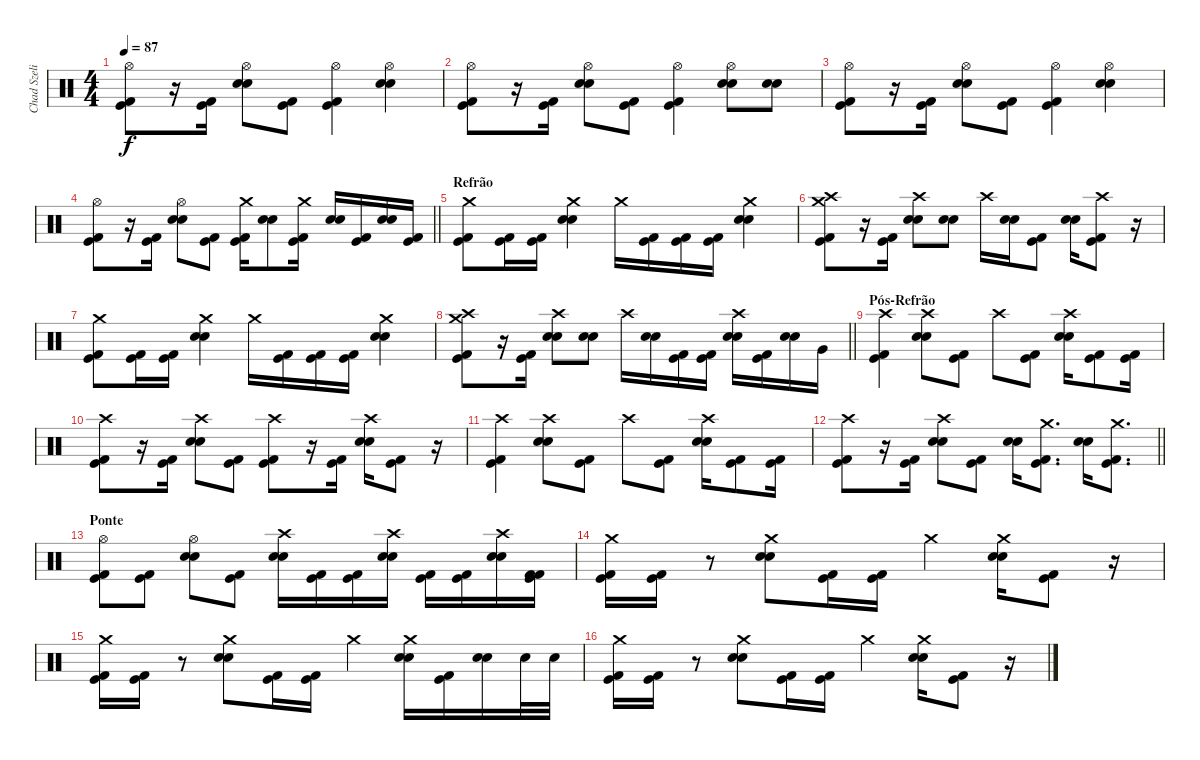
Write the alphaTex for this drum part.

\track ("Chad Szeliga" "Chad Szeli") {instrument percussion}
\staff {score}
\articulation defaults
\ts (4 4)
\tempo 87
\clef neutral
\ks c
("Kick (hit) 2" "Kick (hit)" "Hi-Hat (open)").8{dy f} r.16 ("Kick (hit) 2" "Kick (hit)").16{beam Down} ("Snare (hit) 2" "Snare (hit) 2" "Hi-Hat (open)").8 ("Kick (hit) 2" "Kick (hit)").8 ("Kick (hit) 2" "Kick (hit)" "Hi-Hat (open)").4 ("Snare (hit) 2" "Snare (hit) 2" "Hi-Hat (open)").4 |
("Kick (hit) 2" "Kick (hit)" "Hi-Hat (open)").8 r.16 ("Kick (hit) 2" "Kick (hit)").16{beam Down} ("Snare (hit) 2" "Snare (hit) 2" "Hi-Hat (open)").8 ("Kick (hit) 2" "Kick (hit)").8 ("Kick (hit) 2" "Kick (hit)" "Hi-Hat (open)").4 ("Snare (hit) 2" "Snare (hit) 2" "Hi-Hat (open)").8 ("Snare (hit) 2" "Snare (hit) 2").8 |
("Kick (hit) 2" "Kick (hit)" "Hi-Hat (open)").8 r.16 ("Kick (hit) 2" "Kick (hit)").16{beam Down} ("Snare (hit) 2" "Snare (hit) 2" "Hi-Hat (open)").8 ("Kick (hit) 2" "Kick (hit)").8 ("Kick (hit) 2" "Kick (hit)" "Hi-Hat (open)").4 ("Snare (hit) 2" "Snare (hit) 2" "Hi-Hat (open)").4 |
\barLineRight lightlight
("Kick (hit) 2" "Kick (hit)" "Hi-Hat (open)").8 r.16 ("Kick (hit) 2" "Kick (hit)").16{beam Down} ("Snare (hit) 2" "Snare (hit) 2" "Hi-Hat (open)").8 ("Kick (hit) 2" "Kick (hit)").8 ("Crash medium (hit)" "Kick (hit) 2" "Kick (hit)").16 ("Snare (hit) 2" "Snare (hit) 2").8 ("Crash medium (hit)" "Kick (hit) 2" "Kick (hit)").16 ("Snare (hit) 2" "Snare (hit) 2").16 ("Kick (hit) 2" "Kick (hit)").16 ("Snare (hit) 2" "Snare (hit) 2").16 ("Kick (hit) 2" "Kick (hit)").16 |
\section ("" "Refrão")
("Crash medium (hit)" "Kick (hit) 2" "Kick (hit)").8 ("Kick (hit) 2" "Kick (hit)").16 ("Kick (hit) 2" "Kick (hit)").16 ("Crash medium (hit)" "Snare (hit) 2" "Snare (hit) 2").4 "Crash medium (hit)".16 ("Kick (hit) 2" "Kick (hit)").16 ("Kick (hit) 2" "Kick (hit)").16 ("Kick (hit) 2" "Kick (hit)").16 ("Crash medium (hit)" "Snare (hit) 2" "Snare (hit) 2").4 |
("Crash high (hit)" "Kick (hit) 2" "Kick (hit)" "Crash medium (hit)").8 r.16 ("Kick (hit) 2" "Kick (hit)").16{beam Down} ("Crash high (hit)" "Snare (hit) 2" "Snare (hit) 2").8 ("Snare (hit) 2" "Snare (hit) 2").8 "Crash high (hit)".16 ("Snare (hit) 2" "Snare (hit) 2").16 ("Kick (hit) 2" "Kick (hit)").8 ("Snare (hit) 2" "Snare (hit) 2").16 ("Crash high (hit)" "Kick (hit) 2" "Kick (hit)").8 r.16 |
("Crash medium (hit)" "Kick (hit) 2" "Kick (hit)").8 ("Kick (hit) 2" "Kick (hit)").16 ("Kick (hit) 2" "Kick (hit)").16 ("Crash medium (hit)" "Snare (hit) 2" "Snare (hit) 2").4 "Crash medium (hit)".16 ("Kick (hit) 2" "Kick (hit)").16 ("Kick (hit) 2" "Kick (hit)").16 ("Kick (hit) 2" "Kick (hit)").16 ("Crash medium (hit)" "Snare (hit) 2" "Snare (hit) 2").4 |
\barLineRight lightlight
("Crash high (hit)" "Kick (hit) 2" "Kick (hit)" "Crash medium (hit)").8 r.16 ("Kick (hit) 2" "Kick (hit)").16{beam Down} ("Crash high (hit)" "Snare (hit) 2" "Snare (hit) 2").8 ("Snare (hit) 2" "Snare (hit) 2").8 "Crash high (hit)".16 ("Snare (hit) 2" "Snare (hit) 2").16 ("Kick (hit) 2" "Kick (hit)").16 ("Kick (hit) 2" "Kick (hit)").16 ("Crash high (hit)" "Snare (hit) 2" "Snare (hit) 2").16 ("Kick (hit) 2" "Kick (hit)").16 ("Snare (hit) 2" "Snare (hit) 2").16 "Very Low Tom (hit)".16 |
\section ("" "Pós-Refrão")
("Crash high (hit)" "Kick (hit) 2" "Kick (hit)").4 ("Crash high (hit)" "Snare (hit) 2" "Snare (hit) 2").8 ("Kick (hit) 2" "Kick (hit)").8 "Crash high (hit)".8 ("Kick (hit) 2" "Kick (hit)").8 ("Crash high (hit)" "Snare (hit) 2" "Snare (hit) 2").16 ("Kick (hit) 2" "Kick (hit)").8 ("Kick (hit) 2" "Kick (hit)").16 |
("Crash high (hit)" "Kick (hit) 2" "Kick (hit)").8 r.16 ("Kick (hit) 2" "Kick (hit)").16{beam Down} ("Crash high (hit)" "Snare (hit) 2" "Snare (hit) 2").8 ("Kick (hit) 2" "Kick (hit)").8 ("Crash high (hit)" "Kick (hit) 2" "Kick (hit)").8 r.16 ("Kick (hit) 2" "Kick (hit)").16{beam Down} ("Crash high (hit)" "Snare (hit) 2" "Snare (hit) 2").16 ("Kick (hit) 2" "Kick (hit)").8 r.16 |
("Crash high (hit)" "Kick (hit) 2" "Kick (hit)").4 ("Crash high (hit)" "Snare (hit) 2" "Snare (hit) 2").8 ("Kick (hit) 2" "Kick (hit)").8 "Crash high (hit)".8 ("Kick (hit) 2" "Kick (hit)").8 ("Crash high (hit)" "Snare (hit) 2" "Snare (hit) 2").16 ("Kick (hit) 2" "Kick (hit)").8 ("Kick (hit) 2" "Kick (hit)").16 |
\barLineRight lightlight
("Crash high (hit)" "Kick (hit) 2" "Kick (hit)").8 r.16 ("Kick (hit) 2" "Kick (hit)").16{beam Down} ("Crash high (hit)" "Snare (hit) 2" "Snare (hit) 2").8 ("Kick (hit) 2" "Kick (hit)").8 ("Snare (hit) 2" "Snare (hit) 2").16 ("Crash medium (hit)" "Kick (hit) 2" "Kick (hit)").8{d} ("Snare (hit) 2" "Snare (hit) 2").16 ("Crash medium (hit)" "Kick (hit) 2" "Kick (hit)").8{d} |
\section ("" "Ponte")
("Kick (hit) 2" "Kick (hit)" "Hi-Hat (open)").8 ("Kick (hit) 2" "Kick (hit)").8 ("Snare (hit) 2" "Snare (hit) 2" "Hi-Hat (open)").8 ("Kick (hit) 2" "Kick (hit)").8 ("Crash high (hit)" "Snare (hit) 2" "Snare (hit) 2").16 ("Kick (hit) 2" "Kick (hit)").16 ("Kick (hit) 2" "Kick (hit)").16 ("Crash high (hit)" "Snare (hit) 2" "Snare (hit) 2").16 ("Kick (hit) 2" "Kick (hit)").16 ("Kick (hit) 2" "Kick (hit)").16 ("Crash high (hit)" "Snare (hit) 2" "Snare (hit) 2").16 ("Kick (hit) 2" "Kick (hit)" "Kick (hit) 2").16 |
("Crash medium (hit)" "Kick (hit) 2" "Kick (hit)").16 ("Kick (hit) 2" "Kick (hit)").16 r.8 ("Crash medium (hit)" "Snare (hit) 2" "Snare (hit) 2").8 ("Kick (hit) 2" "Kick (hit)").16 ("Kick (hit) 2" "Kick (hit)").16 "Crash medium (hit)".4 ("Crash medium (hit)" "Snare (hit) 2" "Snare (hit) 2").16 ("Kick (hit) 2" "Kick (hit)").8 r.16 |
("Crash medium (hit)" "Kick (hit) 2" "Kick (hit)").16 ("Kick (hit) 2" "Kick (hit)").16 r.8 ("Crash medium (hit)" "Snare (hit) 2" "Snare (hit) 2").8 ("Kick (hit) 2" "Kick (hit)").16 ("Kick (hit) 2" "Kick (hit)").16 "Crash medium (hit)".4 ("Crash medium (hit)" "Snare (hit) 2" "Snare (hit) 2").16 ("Kick (hit) 2" "Kick (hit)").16 ("Snare (hit) 2" "Snare (hit) 2").16 "Snare (hit) 2".32 "Snare (hit) 2".32 |
("Crash medium (hit)" "Kick (hit) 2" "Kick (hit)").16 ("Kick (hit) 2" "Kick (hit)").16 r.8 ("Crash medium (hit)" "Snare (hit) 2" "Snare (hit) 2").8 ("Kick (hit) 2" "Kick (hit)").16 ("Kick (hit) 2" "Kick (hit)").16 "Crash medium (hit)".4 ("Crash medium (hit)" "Snare (hit) 2" "Snare (hit) 2").16 ("Kick (hit) 2" "Kick (hit)").8 r.16
